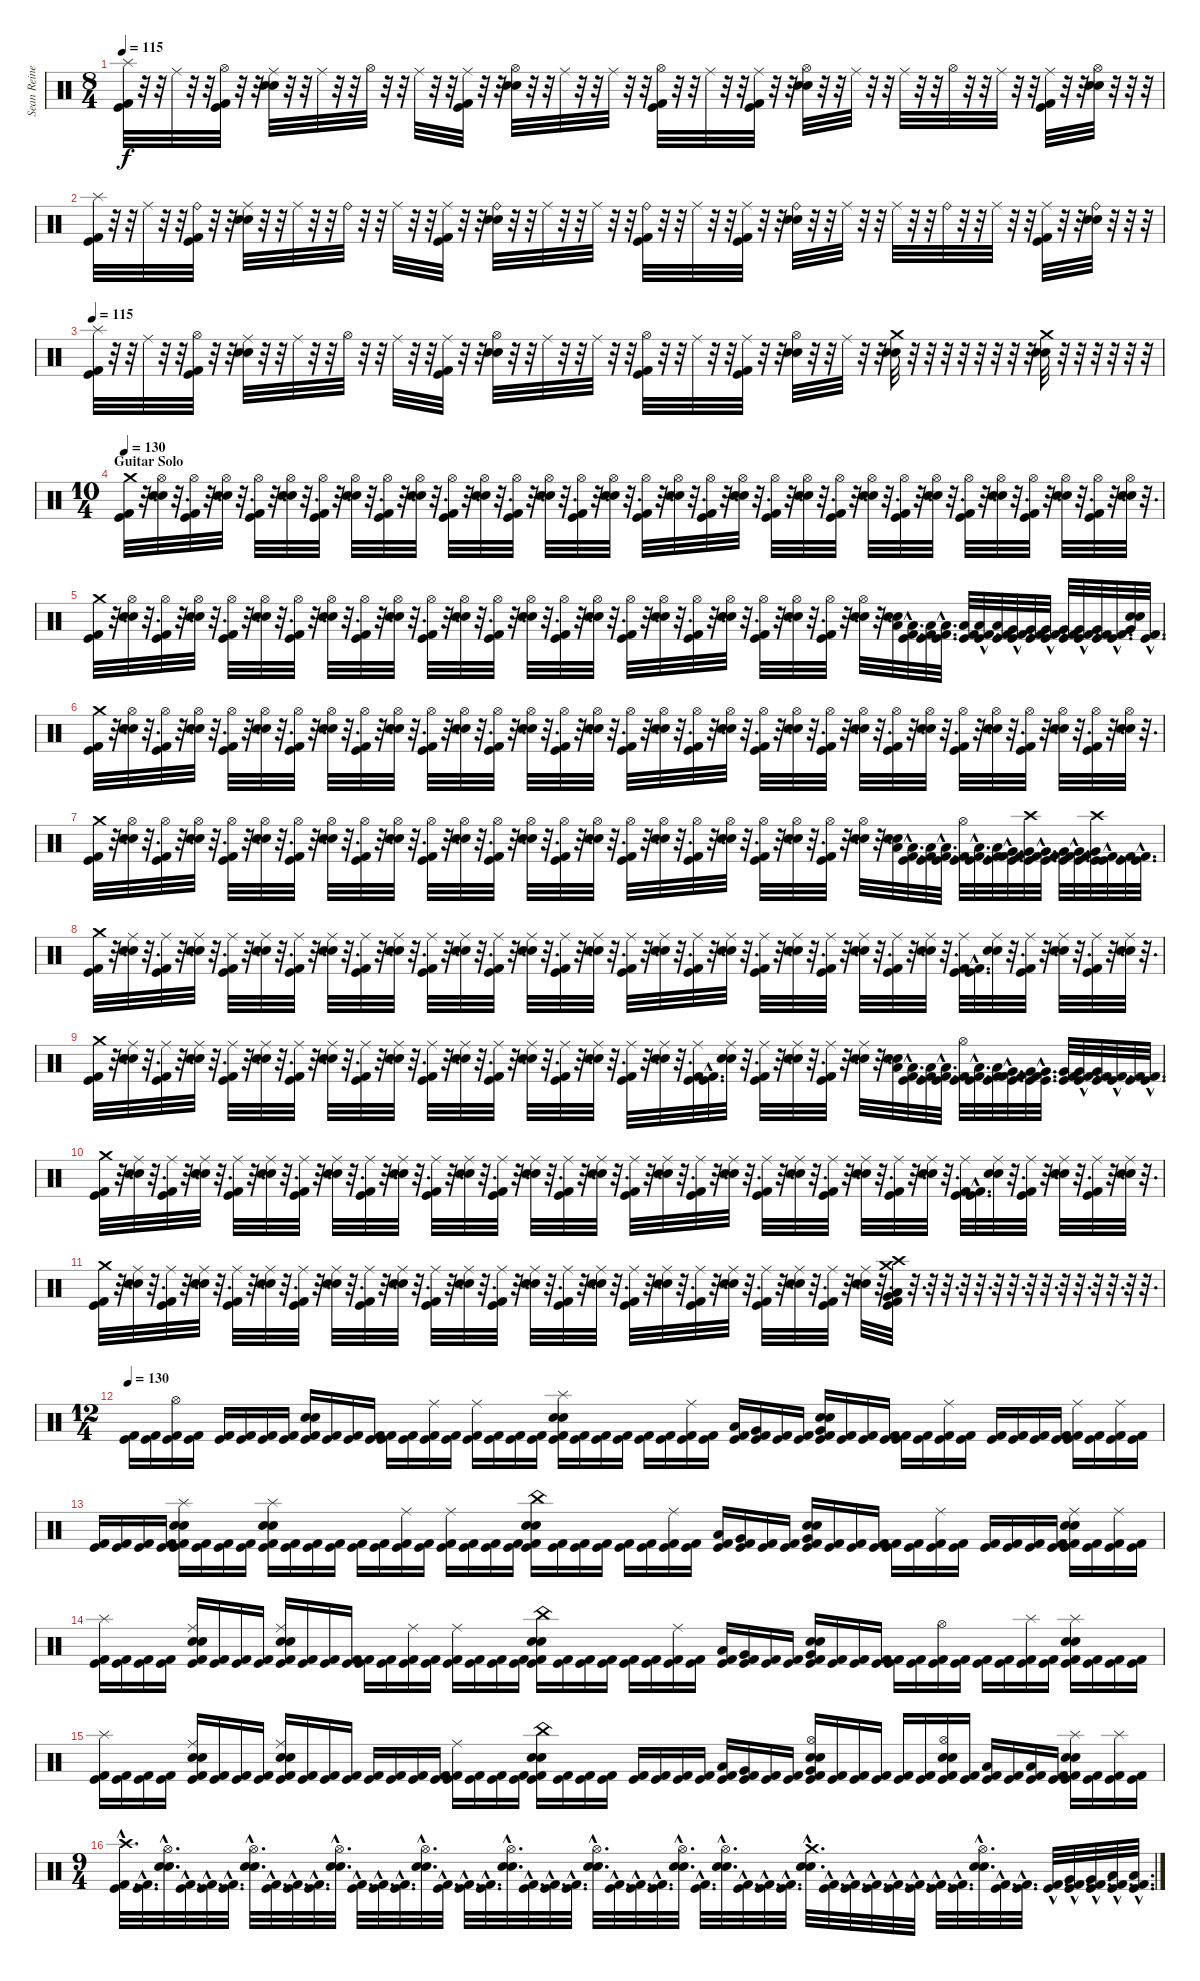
\track ("Sean Reinert" "Sean Reine") {instrument percussion}
\staff {score}
\articulation defaults
\ts (8 4)
\tempo 115
\clef neutral
\ks c
("Splash (hit)" "Kick (hit) 2" "Kick (hit)").32{dy f} r.32 r.32 "Ride (middle)".32 r.32 r.32 ("Hi-Hat (open)" "Kick (hit) 2" "Kick (hit)").32 r.32 r.32 ("Ride (middle)" "Electric Snare (hit)" "Snare (hit) 2").32 r.32 r.32 "Ride (middle)".32 r.32 r.32 "Hi-Hat (open)".32 r.32 r.32 "Ride (middle)".32 r.32 r.32 ("Ride (middle)" "Kick (hit) 2" "Kick (hit)").32 r.32 r.32 ("Hi-Hat (open)" "Electric Snare (hit)" "Snare (hit) 2").32 r.32 r.32 "Ride (middle)".32 r.32 r.32 "Ride (middle)".32 r.32 r.32 ("Hi-Hat (open)" "Kick (hit) 2" "Kick (hit)").32 r.32 r.32 "Ride (middle)".32 r.32 r.32 ("Ride (middle)" "Kick (hit) 2" "Kick (hit)").32 r.32 r.32 ("Hi-Hat (open)" "Electric Snare (hit)" "Snare (hit) 2").32 r.32 r.32 "Ride (middle)".32 r.32 r.32 "Ride (middle)".32 r.32 r.32 "Hi-Hat (open)".32 r.32 r.32 "Ride (middle)".32 r.32 r.32 ("Ride (middle)" "Kick (hit) 2" "Kick (hit)").32 r.32 r.32 ("Hi-Hat (open)" "Electric Snare (hit)" "Snare (hit) 2").32 r.32 r.32 r.32 |
("Splash (hit)" "Kick (hit) 2" "Kick (hit)").32 r.32 r.32 "Ride (middle)".32 r.32 r.32 ("Ride (bell)" "Kick (hit) 2" "Kick (hit)").32 r.32 r.32 ("Ride (middle)" "Electric Snare (hit)" "Snare (hit) 2").32 r.32 r.32 "Ride (middle)".32 r.32 r.32 "Ride (bell)".32 r.32 r.32 "Ride (middle)".32 r.32 r.32 ("Ride (middle)" "Kick (hit) 2" "Kick (hit)").32 r.32 r.32 ("Ride (bell)" "Electric Snare (hit)" "Snare (hit) 2").32 r.32 r.32 "Ride (middle)".32 r.32 r.32 "Ride (middle)".32 r.32 r.32 ("Ride (bell)" "Kick (hit) 2" "Kick (hit)").32 r.32 r.32 "Ride (middle)".32 r.32 r.32 ("Ride (middle)" "Kick (hit) 2" "Kick (hit)").32 r.32 r.32 ("Ride (bell)" "Electric Snare (hit)" "Snare (hit) 2").32 r.32 r.32 "Ride (middle)".32 r.32 r.32 "Ride (middle)".32 r.32 r.32 "Ride (bell)".32 r.32 r.32 "Ride (middle)".32 r.32 r.32 ("Ride (middle)" "Kick (hit) 2" "Kick (hit)").32 r.32 r.32 ("Ride (bell)" "Electric Snare (hit)" "Snare (hit) 2").32 r.32 r.32 r.32 |
\tempo 115
("Splash (hit)" "Kick (hit) 2" "Kick (hit)").32 r.32 r.32 "Ride (middle)".32 r.32 r.32 ("Hi-Hat (open)" "Kick (hit) 2" "Kick (hit)").32 r.32 r.32 ("Ride (middle)" "Electric Snare (hit)" "Snare (hit) 2").32 r.32 r.32 "Ride (middle)".32 r.32 r.32 "Hi-Hat (open)".32 r.32 r.32 "Ride (middle)".32 r.32 r.32 ("Ride (middle)" "Kick (hit) 2" "Kick (hit)").32 r.32 r.32 ("Hi-Hat (open)" "Electric Snare (hit)" "Snare (hit) 2").32 r.32 r.32 "Ride (middle)".32 r.32 r.32 "Ride (middle)".32 r.32 r.32 ("Hi-Hat (open)" "Kick (hit) 2" "Kick (hit)").32 r.32 r.32 "Ride (middle)".32 r.32 r.32 ("Ride (middle)" "Kick (hit) 2" "Kick (hit)").32 r.32 r.32 ("Hi-Hat (open)" "Electric Snare (hit)" "Snare (hit) 2").32 r.32 r.32 "Ride (middle)".32 r.32 r.32 ("Crash medium (hit)" "Electric Snare (hit)" "Snare (hit) 2").32 r.32 r.32 r.32 r.32 r.32 r.32 r.32 r.32 ("Crash medium (hit)" "Electric Snare (hit)" "Snare (hit) 2").32 r.32 r.32 r.32 r.32 r.32 r.32 |
\ts (10 4)
\section ("" "Guitar Solo")
\tempo 130
("Crash medium (hit)" "Kick (hit) 2" "Kick (hit)").32 r.32{d} ("Hi-Hat (open)" "Electric Snare (hit)" "Snare (hit) 2").32 r.32{d} ("Hi-Hat (open)" "Kick (hit)" "Kick (hit) 2").32 r.32{d} ("Hi-Hat (open)" "Electric Snare (hit)" "Snare (hit) 2").32 r.32{d} ("Hi-Hat (open)" "Kick (hit)" "Kick (hit) 2").32 r.32{d} ("Hi-Hat (open)" "Electric Snare (hit)" "Snare (hit) 2").32 r.32{d} ("Hi-Hat (open)" "Kick (hit)" "Kick (hit) 2").32 r.32{d} ("Hi-Hat (open)" "Electric Snare (hit)" "Snare (hit) 2").32 r.32{d} ("Hi-Hat (open)" "Kick (hit)" "Kick (hit) 2").32 r.32{d} ("Hi-Hat (open)" "Snare (hit) 2" "Electric Snare (hit)").32 r.32{d} ("Hi-Hat (open)" "Kick (hit)" "Kick (hit) 2").32 r.32{d} ("Hi-Hat (open)" "Snare (hit) 2" "Electric Snare (hit)").32 r.32{d} ("Hi-Hat (open)" "Kick (hit)" "Kick (hit) 2").32 r.32{d} ("Hi-Hat (open)" "Snare (hit) 2" "Electric Snare (hit)").32 r.32{d} ("Hi-Hat (open)" "Kick (hit)" "Kick (hit) 2").32 r.32{d} ("Hi-Hat (open)" "Snare (hit) 2" "Electric Snare (hit)").32 r.32{d} ("Hi-Hat (open)" "Kick (hit)" "Kick (hit) 2").32 r.32{d} ("Hi-Hat (open)" "Snare (hit) 2" "Electric Snare (hit)").32 r.32{d} ("Hi-Hat (open)" "Kick (hit)" "Kick (hit) 2").32 r.32{d} ("Hi-Hat (open)" "Electric Snare (hit)" "Snare (hit) 2").32 r.32{d} ("Hi-Hat (open)" "Kick (hit) 2" "Kick (hit)").32 r.32{d} ("Hi-Hat (open)" "Electric Snare (hit)" "Snare (hit) 2").32 r.32{d} ("Hi-Hat (open)" "Kick (hit) 2" "Kick (hit)").32 r.32{d} ("Hi-Hat (open)" "Snare (hit) 2" "Electric Snare (hit)").32 r.32{d} ("Hi-Hat (open)" "Kick (hit)" "Kick (hit) 2").32 r.32{d} ("Hi-Hat (open)" "Snare (hit) 2" "Electric Snare (hit)").32 r.32{d} ("Hi-Hat (open)" "Kick (hit)" "Kick (hit) 2").32 r.32{d} ("Hi-Hat (open)" "Electric Snare (hit)" "Snare (hit) 2").32 r.32{d} ("Hi-Hat (open)" "Kick (hit)" "Kick (hit) 2").32 r.32{d} ("Hi-Hat (open)" "Electric Snare (hit)" "Snare (hit) 2").32 r.32{d} ("Hi-Hat (open)" "Kick (hit) 2" "Kick (hit)").32 r.32{d} ("Hi-Hat (open)" "Electric Snare (hit)" "Snare (hit) 2").32 r.32{d} |
("Crash medium (hit)" "Kick (hit) 2" "Kick (hit)").32 r.32{d} ("Hi-Hat (open)" "Electric Snare (hit)" "Snare (hit) 2").32 r.32{d} ("Hi-Hat (open)" "Kick (hit)" "Kick (hit) 2").32 r.32{d} ("Hi-Hat (open)" "Electric Snare (hit)" "Snare (hit) 2").32 r.32{d} ("Hi-Hat (open)" "Kick (hit)" "Kick (hit) 2").32 r.32{d} ("Hi-Hat (open)" "Electric Snare (hit)" "Snare (hit) 2").32 r.32{d} ("Hi-Hat (open)" "Kick (hit)" "Kick (hit) 2").32 r.32{d} ("Hi-Hat (open)" "Electric Snare (hit)" "Snare (hit) 2").32 r.32{d} ("Hi-Hat (open)" "Kick (hit)" "Kick (hit) 2").32 r.32{d} ("Hi-Hat (open)" "Snare (hit) 2" "Electric Snare (hit)").32 r.32{d} ("Hi-Hat (open)" "Kick (hit)" "Kick (hit) 2").32 r.32{d} ("Hi-Hat (open)" "Snare (hit) 2" "Electric Snare (hit)").32 r.32{d} ("Hi-Hat (open)" "Kick (hit)" "Kick (hit) 2").32 r.32{d} ("Hi-Hat (open)" "Snare (hit) 2" "Electric Snare (hit)").32 r.32{d} ("Hi-Hat (open)" "Kick (hit)" "Kick (hit) 2").32 r.32{d} ("Hi-Hat (open)" "Snare (hit) 2" "Electric Snare (hit)").32 r.32{d} ("Hi-Hat (open)" "Kick (hit)" "Kick (hit) 2").32 r.32{d} ("Hi-Hat (open)" "Snare (hit) 2" "Electric Snare (hit)").32 r.32{d} ("Hi-Hat (open)" "Kick (hit)" "Kick (hit) 2").32 r.32{d} ("Hi-Hat (open)" "Electric Snare (hit)" "Snare (hit) 2").32 r.32{d} ("Hi-Hat (open)" "Kick (hit) 2" "Kick (hit)").32 r.32{d} ("Hi-Hat (open)" "Electric Snare (hit)" "Snare (hit) 2").32 r.32{d} ("Hi-Hat (open)" "Kick (hit) 2" "Kick (hit)").32 r.32{d} ("Hi-Hat (open)" "Snare (hit) 2" "Electric Snare (hit)").32 r.32{d} ("Low Tom (hit)" "Electric Snare (hit)" "Snare (hit) 2").32 ("Low Tom (hit)"{hac} "Kick (hit) 2"{hac} "Kick (hit)"{hac}).32{d} ("Low Tom (hit)" "Kick (hit) 2" "Kick (hit)").32 ("Low Tom (hit)"{hac} "Kick (hit)"{hac} "Kick (hit) 2"{hac}).32{d} ("Low Tom (hit)" "Kick (hit)" "Kick (hit) 2").32 ("Low Tom (hit)"{hac} "Kick (hit)"{hac} "Kick (hit) 2"{hac}).32{d} ("Low Tom (hit)" "Kick (hit)" "Kick (hit) 2").32 ("Very Low Tom (hit)"{hac} "Kick (hit)"{hac} "Kick (hit) 2"{hac}).32{d} ("Very Low Tom (hit)" "Kick (hit)" "Kick (hit) 2").32 ("Very Low Tom (hit)"{hac} "Kick (hit)"{hac} "Kick (hit) 2"{hac}).32{d} ("Very Low Tom (hit)" "Kick (hit)" "Kick (hit) 2").32 ("Very Low Tom (hit)"{hac} "Kick (hit)"{hac} "Kick (hit) 2"{hac}).32{d} ("Very Low Tom (hit)" "Kick (hit)" "Kick (hit) 2").32 ("Kick (hit)"{hac} "Kick (hit) 2"{hac}).32{d} ("Very Low Tom (hit)" "Snare (hit) 2" "Electric Snare (hit)").32 ("Kick (hit)"{hac} "Kick (hit) 2"{hac}).32{d} |
("Crash medium (hit)" "Kick (hit) 2" "Kick (hit)").32 r.32{d} ("Hi-Hat (open)" "Electric Snare (hit)" "Snare (hit) 2").32 r.32{d} ("Hi-Hat (open)" "Kick (hit)" "Kick (hit) 2").32 r.32{d} ("Hi-Hat (open)" "Electric Snare (hit)" "Snare (hit) 2").32 r.32{d} ("Hi-Hat (open)" "Kick (hit)" "Kick (hit) 2").32 r.32{d} ("Hi-Hat (open)" "Electric Snare (hit)" "Snare (hit) 2").32 r.32{d} ("Hi-Hat (open)" "Kick (hit)" "Kick (hit) 2").32 r.32{d} ("Hi-Hat (open)" "Electric Snare (hit)" "Snare (hit) 2").32 r.32{d} ("Hi-Hat (open)" "Kick (hit)" "Kick (hit) 2").32 r.32{d} ("Hi-Hat (open)" "Snare (hit) 2" "Electric Snare (hit)").32 r.32{d} ("Hi-Hat (open)" "Kick (hit)" "Kick (hit) 2").32 r.32{d} ("Hi-Hat (open)" "Snare (hit) 2" "Electric Snare (hit)").32 r.32{d} ("Hi-Hat (open)" "Kick (hit)" "Kick (hit) 2").32 r.32{d} ("Hi-Hat (open)" "Snare (hit) 2" "Electric Snare (hit)").32 r.32{d} ("Hi-Hat (open)" "Kick (hit)" "Kick (hit) 2").32 r.32{d} ("Hi-Hat (open)" "Snare (hit) 2" "Electric Snare (hit)").32 r.32{d} ("Hi-Hat (open)" "Kick (hit)" "Kick (hit) 2").32 r.32{d} ("Hi-Hat (open)" "Snare (hit) 2" "Electric Snare (hit)").32 r.32{d} ("Hi-Hat (open)" "Kick (hit)" "Kick (hit) 2").32 r.32{d} ("Hi-Hat (open)" "Electric Snare (hit)" "Snare (hit) 2").32 r.32{d} ("Hi-Hat (open)" "Kick (hit) 2" "Kick (hit)").32 r.32{d} ("Hi-Hat (open)" "Electric Snare (hit)" "Snare (hit) 2").32 r.32{d} ("Hi-Hat (open)" "Kick (hit) 2" "Kick (hit)").32 r.32{d} ("Hi-Hat (open)" "Snare (hit) 2" "Electric Snare (hit)").32 r.32{d} ("Hi-Hat (open)" "Kick (hit)" "Kick (hit) 2").32 r.32{d} ("Hi-Hat (open)" "Snare (hit) 2" "Electric Snare (hit)").32 r.32{d} ("Hi-Hat (open)" "Kick (hit)" "Kick (hit) 2").32 r.32{d} ("Hi-Hat (open)" "Electric Snare (hit)" "Snare (hit) 2").32 r.32{d} ("Hi-Hat (open)" "Kick (hit)" "Kick (hit) 2").32 r.32{d} ("Hi-Hat (open)" "Electric Snare (hit)" "Snare (hit) 2").32 r.32{d} ("Hi-Hat (open)" "Kick (hit) 2" "Kick (hit)").32 r.32{d} ("Hi-Hat (open)" "Electric Snare (hit)" "Snare (hit) 2").32 r.32{d} |
("Crash medium (hit)" "Kick (hit) 2" "Kick (hit)").32 r.32{d} ("Hi-Hat (open)" "Electric Snare (hit)" "Snare (hit) 2").32 r.32{d} ("Hi-Hat (open)" "Kick (hit)" "Kick (hit) 2").32 r.32{d} ("Hi-Hat (open)" "Electric Snare (hit)" "Snare (hit) 2").32 r.32{d} ("Hi-Hat (open)" "Kick (hit)" "Kick (hit) 2").32 r.32{d} ("Hi-Hat (open)" "Electric Snare (hit)" "Snare (hit) 2").32 r.32{d} ("Hi-Hat (open)" "Kick (hit)" "Kick (hit) 2").32 r.32{d} ("Hi-Hat (open)" "Electric Snare (hit)" "Snare (hit) 2").32 r.32{d} ("Hi-Hat (open)" "Kick (hit)" "Kick (hit) 2").32 r.32{d} ("Hi-Hat (open)" "Snare (hit) 2" "Electric Snare (hit)").32 r.32{d} ("Hi-Hat (open)" "Kick (hit)" "Kick (hit) 2").32 r.32{d} ("Hi-Hat (open)" "Snare (hit) 2" "Electric Snare (hit)").32 r.32{d} ("Hi-Hat (open)" "Kick (hit)" "Kick (hit) 2").32 r.32{d} ("Hi-Hat (open)" "Snare (hit) 2" "Electric Snare (hit)").32 r.32{d} ("Hi-Hat (open)" "Kick (hit)" "Kick (hit) 2").32 r.32{d} ("Hi-Hat (open)" "Snare (hit) 2" "Electric Snare (hit)").32 r.32{d} ("Hi-Hat (open)" "Kick (hit)" "Kick (hit) 2").32 r.32{d} ("Hi-Hat (open)" "Snare (hit) 2" "Electric Snare (hit)").32 r.32{d} ("Hi-Hat (open)" "Kick (hit)" "Kick (hit) 2").32 r.32{d} ("Hi-Hat (open)" "Electric Snare (hit)" "Snare (hit) 2").32 r.32{d} ("Hi-Hat (open)" "Kick (hit) 2" "Kick (hit)").32 r.32{d} ("Hi-Hat (open)" "Electric Snare (hit)" "Snare (hit) 2").32 r.32{d} ("Hi-Hat (open)" "Kick (hit) 2" "Kick (hit)").32 r.32{d} ("Hi-Hat (open)" "Snare (hit) 2" "Electric Snare (hit)").32 r.32{d} ("Low Tom (hit)" "Electric Snare (hit)" "Snare (hit) 2").32 ("Low Tom (hit)"{hac} "Kick (hit) 2"{hac} "Kick (hit)"{hac}).32{d} ("Low Tom (hit)" "Kick (hit) 2" "Kick (hit)").32 ("Low Tom (hit)"{hac} "Kick (hit)"{hac} "Kick (hit) 2"{hac}).32{d} ("Hi-Hat (open)" "Kick (hit)" "Kick (hit) 2").32 ("Low Tom (hit)"{hac} "Kick (hit)"{hac} "Kick (hit) 2"{hac}).32{d} ("Low Tom (hit)" "Kick (hit)" "Kick (hit) 2").32 ("Very Low Tom (hit)"{hac} "Kick (hit)"{hac} "Kick (hit) 2"{hac}).32{d} ("Crash high (hit)" "Very Low Tom (hit)" "Kick (hit)" "Kick (hit) 2").32 ("Very Low Tom (hit)"{hac} "Kick (hit)"{hac} "Kick (hit) 2"{hac}).32{d} ("Very Low Tom (hit)" "Kick (hit)" "Kick (hit) 2").32 ("Very Low Tom (hit)"{hac} "Kick (hit)"{hac} "Kick (hit) 2"{hac}).32{d} ("Crash high (hit)" "Very Low Tom (hit)" "Kick (hit)" "Kick (hit) 2").32 ("Kick (hit)"{hac} "Kick (hit) 2"{hac}).32{d} ("Kick (hit)" "Kick (hit) 2").32 ("Kick (hit)"{hac} "Kick (hit) 2"{hac}).32{d} |
("Crash medium (hit)" "Kick (hit) 2" "Kick (hit)").32 r.32{d} ("Ride (middle)" "Electric Snare (hit)" "Snare (hit) 2").32 r.32{d} ("Ride (middle)" "Kick (hit)" "Kick (hit) 2").32 r.32{d} ("Ride (middle)" "Electric Snare (hit)" "Snare (hit) 2").32 r.32{d} ("Ride (middle)" "Kick (hit)" "Kick (hit) 2").32 r.32{d} ("Ride (middle)" "Electric Snare (hit)" "Snare (hit) 2").32 r.32{d} ("Ride (middle)" "Kick (hit)" "Kick (hit) 2").32 r.32{d} ("Ride (middle)" "Electric Snare (hit)" "Snare (hit) 2").32 r.32{d} ("Ride (middle)" "Kick (hit)" "Kick (hit) 2").32 r.32{d} ("Ride (middle)" "Snare (hit) 2" "Electric Snare (hit)").32 r.32{d} ("Ride (middle)" "Kick (hit)" "Kick (hit) 2").32 r.32{d} ("Ride (middle)" "Snare (hit) 2" "Electric Snare (hit)").32 r.32{d} ("Ride (middle)" "Kick (hit)" "Kick (hit) 2").32 r.32{d} ("Ride (middle)" "Snare (hit) 2" "Electric Snare (hit)").32 r.32{d} ("Ride (middle)" "Kick (hit)" "Kick (hit) 2").32 r.32{d} ("Ride (middle)" "Snare (hit) 2" "Electric Snare (hit)").32 r.32{d} ("Ride (middle)" "Kick (hit)" "Kick (hit) 2").32 r.32{d} ("Ride (middle)" "Snare (hit) 2" "Electric Snare (hit)").32 r.32{d} ("Ride (middle)" "Kick (hit)" "Kick (hit) 2").32 r.32{d} ("Ride (middle)" "Electric Snare (hit)" "Snare (hit) 2").32 r.32{d} ("Ride (middle)" "Kick (hit) 2" "Kick (hit)").32 r.32{d} ("Ride (middle)" "Electric Snare (hit)" "Snare (hit) 2").32 r.32{d} ("Ride (middle)" "Kick (hit) 2" "Kick (hit)").32 r.32{d} ("Ride (middle)" "Snare (hit) 2" "Electric Snare (hit)").32 r.32{d} ("Ride (middle)" "Kick (hit)" "Kick (hit) 2").32 r.32{d} ("Ride (middle)" "Snare (hit) 2" "Electric Snare (hit)").32 r.32{d} ("Ride (middle)" "Kick (hit)" "Kick (hit) 2").32 ("Kick (hit)"{hac} "Kick (hit) 2"{hac}).32{d} ("Ride (middle)" "Electric Snare (hit)" "Snare (hit) 2").32 r.32{d} ("Ride (middle)" "Kick (hit)" "Kick (hit) 2").32 r.32{d} ("Ride (middle)" "Electric Snare (hit)" "Snare (hit) 2").32 r.32{d} ("Ride (middle)" "Kick (hit) 2" "Kick (hit)").32 r.32{d} ("Ride (middle)" "Electric Snare (hit)" "Snare (hit) 2").32 r.32{d} |
("Crash medium (hit)" "Kick (hit) 2" "Kick (hit)").32 r.32{d} ("Ride (middle)" "Electric Snare (hit)" "Snare (hit) 2").32 r.32{d} ("Ride (middle)" "Kick (hit)" "Kick (hit) 2").32 r.32{d} ("Ride (middle)" "Electric Snare (hit)" "Snare (hit) 2").32 r.32{d} ("Ride (middle)" "Kick (hit)" "Kick (hit) 2").32 r.32{d} ("Ride (middle)" "Electric Snare (hit)" "Snare (hit) 2").32 r.32{d} ("Ride (middle)" "Kick (hit)" "Kick (hit) 2").32 r.32{d} ("Ride (middle)" "Electric Snare (hit)" "Snare (hit) 2").32 r.32{d} ("Ride (middle)" "Kick (hit)" "Kick (hit) 2").32 r.32{d} ("Ride (middle)" "Snare (hit) 2" "Electric Snare (hit)").32 r.32{d} ("Ride (middle)" "Kick (hit)" "Kick (hit) 2").32 r.32{d} ("Ride (middle)" "Snare (hit) 2" "Electric Snare (hit)").32 r.32{d} ("Ride (middle)" "Kick (hit)" "Kick (hit) 2").32 r.32{d} ("Ride (middle)" "Snare (hit) 2" "Electric Snare (hit)").32 r.32{d} ("Ride (middle)" "Kick (hit)" "Kick (hit) 2").32 r.32{d} ("Ride (middle)" "Snare (hit) 2" "Electric Snare (hit)").32 r.32{d} ("Ride (middle)" "Kick (hit)" "Kick (hit) 2").32 r.32{d} ("Ride (middle)" "Snare (hit) 2" "Electric Snare (hit)").32 r.32{d} ("Ride (middle)" "Kick (hit)" "Kick (hit) 2").32 ("Kick (hit)"{hac} "Kick (hit) 2"{hac}).32{d} ("Ride (middle)" "Electric Snare (hit)" "Snare (hit) 2").32 r.32{d} ("Ride (middle)" "Kick (hit) 2" "Kick (hit)").32 r.32{d} ("Ride (middle)" "Electric Snare (hit)" "Snare (hit) 2").32 r.32{d} ("Ride (middle)" "Kick (hit) 2" "Kick (hit)").32 r.32{d} ("Ride (middle)" "Snare (hit) 2" "Electric Snare (hit)").32 r.32{d} ("Low Tom (hit)" "Electric Snare (hit)" "Snare (hit) 2").32 ("Low Tom (hit)"{hac} "Kick (hit) 2"{hac} "Kick (hit)"{hac}).32{d} ("Low Tom (hit)" "Kick (hit) 2" "Kick (hit)").32 ("Low Tom (hit)"{hac} "Kick (hit)"{hac} "Kick (hit) 2"{hac}).32{d} ("Hi-Hat (open)" "Kick (hit)" "Kick (hit) 2").32 ("Low Tom (hit)"{hac} "Kick (hit)"{hac} "Kick (hit) 2"{hac}).32{d} ("Low Tom (hit)" "Kick (hit)" "Kick (hit) 2").32 ("Very Low Tom (hit)"{hac} "Kick (hit)"{hac} "Kick (hit) 2"{hac}).32{d} ("Very Low Tom (hit)" "Kick (hit)" "Kick (hit) 2").32 ("Very Low Tom (hit)"{hac} "Kick (hit)"{hac} "Kick (hit) 2"{hac}).32{d} ("Very Low Tom (hit)" "Kick (hit)" "Kick (hit) 2").32 ("Very Low Tom (hit)"{hac} "Kick (hit)"{hac} "Kick (hit) 2"{hac}).32{d} ("Very Low Tom (hit)" "Kick (hit)" "Kick (hit) 2").32 ("Kick (hit)"{hac} "Kick (hit) 2"{hac}).32{d} ("Kick (hit)" "Kick (hit) 2").32 ("Kick (hit)"{hac} "Kick (hit) 2"{hac}).32{d} |
("Crash medium (hit)" "Kick (hit) 2" "Kick (hit)").32 r.32{d} ("Ride (middle)" "Electric Snare (hit)" "Snare (hit) 2").32 r.32{d} ("Ride (middle)" "Kick (hit)" "Kick (hit) 2").32 r.32{d} ("Ride (middle)" "Electric Snare (hit)" "Snare (hit) 2").32 r.32{d} ("Ride (middle)" "Kick (hit)" "Kick (hit) 2").32 r.32{d} ("Ride (middle)" "Electric Snare (hit)" "Snare (hit) 2").32 r.32{d} ("Ride (middle)" "Kick (hit)" "Kick (hit) 2").32 r.32{d} ("Ride (middle)" "Electric Snare (hit)" "Snare (hit) 2").32 r.32{d} ("Ride (middle)" "Kick (hit)" "Kick (hit) 2").32 r.32{d} ("Ride (middle)" "Snare (hit) 2" "Electric Snare (hit)").32 r.32{d} ("Ride (middle)" "Kick (hit)" "Kick (hit) 2").32 r.32{d} ("Ride (middle)" "Snare (hit) 2" "Electric Snare (hit)").32 r.32{d} ("Ride (middle)" "Kick (hit)" "Kick (hit) 2").32 r.32{d} ("Ride (middle)" "Snare (hit) 2" "Electric Snare (hit)").32 r.32{d} ("Ride (middle)" "Kick (hit)" "Kick (hit) 2").32 r.32{d} ("Ride (middle)" "Snare (hit) 2" "Electric Snare (hit)").32 r.32{d} ("Ride (middle)" "Kick (hit)" "Kick (hit) 2").32 r.32{d} ("Ride (middle)" "Snare (hit) 2" "Electric Snare (hit)").32 r.32{d} ("Ride (middle)" "Kick (hit)" "Kick (hit) 2").32 r.32{d} ("Ride (middle)" "Electric Snare (hit)" "Snare (hit) 2").32 r.32{d} ("Ride (middle)" "Kick (hit) 2" "Kick (hit)").32 r.32{d} ("Ride (middle)" "Electric Snare (hit)" "Snare (hit) 2").32 r.32{d} ("Ride (middle)" "Kick (hit) 2" "Kick (hit)").32 r.32{d} ("Ride (middle)" "Snare (hit) 2" "Electric Snare (hit)").32 r.32{d} ("Ride (middle)" "Kick (hit)" "Kick (hit) 2").32 r.32{d} ("Ride (middle)" "Snare (hit) 2" "Electric Snare (hit)").32 r.32{d} ("Ride (middle)" "Kick (hit)" "Kick (hit) 2").32 ("Kick (hit)"{hac} "Kick (hit) 2"{hac}).32{d} ("Ride (middle)" "Electric Snare (hit)" "Snare (hit) 2").32 r.32{d} ("Ride (middle)" "Kick (hit)" "Kick (hit) 2").32 r.32{d} ("Ride (middle)" "Electric Snare (hit)" "Snare (hit) 2").32 r.32{d} ("Ride (middle)" "Kick (hit) 2" "Kick (hit)").32 r.32{d} ("Ride (middle)" "Electric Snare (hit)" "Snare (hit) 2").32 r.32{d} |
("Crash medium (hit)" "Kick (hit) 2" "Kick (hit)").32 r.32{d} ("Ride (middle)" "Electric Snare (hit)" "Snare (hit) 2").32 r.32{d} ("Ride (middle)" "Kick (hit)" "Kick (hit) 2").32 r.32{d} ("Ride (middle)" "Electric Snare (hit)" "Snare (hit) 2").32 r.32{d} ("Ride (middle)" "Kick (hit)" "Kick (hit) 2").32 r.32{d} ("Ride (middle)" "Electric Snare (hit)" "Snare (hit) 2").32 r.32{d} ("Ride (middle)" "Kick (hit)" "Kick (hit) 2").32 r.32{d} ("Ride (middle)" "Electric Snare (hit)" "Snare (hit) 2").32 r.32{d} ("Ride (middle)" "Kick (hit)" "Kick (hit) 2").32 r.32{d} ("Ride (middle)" "Snare (hit) 2" "Electric Snare (hit)").32 r.32{d} ("Ride (middle)" "Kick (hit)" "Kick (hit) 2").32 r.32{d} ("Ride (middle)" "Snare (hit) 2" "Electric Snare (hit)").32 r.32{d} ("Ride (middle)" "Kick (hit)" "Kick (hit) 2").32 r.32{d} ("Ride (middle)" "Snare (hit) 2" "Electric Snare (hit)").32 r.32{d} ("Ride (middle)" "Kick (hit)" "Kick (hit) 2").32 r.32{d} ("Ride (middle)" "Snare (hit) 2" "Electric Snare (hit)").32 r.32{d} ("Ride (middle)" "Kick (hit)" "Kick (hit) 2").32 r.32{d} ("Ride (middle)" "Snare (hit) 2" "Electric Snare (hit)").32 r.32{d} ("Ride (middle)" "Kick (hit)" "Kick (hit) 2").32 r.32{d} ("Ride (middle)" "Electric Snare (hit)" "Snare (hit) 2").32 r.32{d} ("Ride (middle)" "Kick (hit) 2" "Kick (hit)").32 r.32{d} ("Ride (middle)" "Electric Snare (hit)" "Snare (hit) 2").32 r.32{d} ("Ride (middle)" "Kick (hit) 2" "Kick (hit)").32 r.32{d} ("Ride (middle)" "Snare (hit) 2" "Electric Snare (hit)").32 r.32{d} ("Crash high (hit)" "Crash medium (hit)" "Low Floor Tom (hit)" "Very Low Tom (hit)" "Kick (hit)" "Kick (hit) 2").32 r.32{d} r.32 r.32{d} r.32 r.32{d} r.32 r.32{d} r.32 r.32{d} r.32 r.32{d} r.32 r.32{d} r.32 r.32{d} |
\ts (12 4)
\tempo 130
("Kick (hit) 2" "Kick (hit)").16 ("Kick (hit) 2" "Kick (hit)").16 ("Hi-Hat (open)" "Kick (hit) 2" "Kick (hit)").16 ("Kick (hit) 2" "Kick (hit)").16 ("Kick (hit) 2" "Kick (hit)").16 ("Kick (hit) 2" "Kick (hit)").16 ("Kick (hit) 2" "Kick (hit)").16 ("Kick (hit) 2" "Kick (hit)").16 ("Snare (hit) 2" "Electric Snare (hit)" "Kick (hit) 2" "Kick (hit)").16 ("Kick (hit) 2" "Kick (hit)").16 ("Kick (hit) 2" "Kick (hit)").16 ("Kick (hit) 2" "Kick (hit)").16 ("Kick (hit) 2" "Kick (hit)").16 ("Kick (hit) 2" "Kick (hit)").16 ("Ride (middle)" "Kick (hit) 2" "Kick (hit)").16 ("Kick (hit) 2" "Kick (hit)").16 ("Ride (middle)" "Kick (hit) 2" "Kick (hit)").16 ("Kick (hit) 2" "Kick (hit)").16 ("Kick (hit) 2" "Kick (hit)").16 ("Kick (hit) 2" "Kick (hit)").16 ("Splash (hit)" "Snare (hit) 2" "Electric Snare (hit)" "Kick (hit) 2" "Kick (hit)").16 ("Kick (hit) 2" "Kick (hit)").16 ("Kick (hit) 2" "Kick (hit)").16 ("Kick (hit) 2" "Kick (hit)").16 ("Kick (hit) 2" "Kick (hit)").16 ("Kick (hit) 2" "Kick (hit)").16 ("Ride (middle)" "Kick (hit) 2" "Kick (hit)").16 ("Kick (hit) 2" "Kick (hit)").16 ("Low Tom (hit)" "Kick (hit) 2" "Kick (hit)").16 ("Very Low Tom (hit)" "Kick (hit) 2" "Kick (hit)").16 ("Kick (hit) 2" "Kick (hit)").16 ("Kick (hit) 2" "Kick (hit)").16 ("Very Low Tom (hit)" "Snare (hit) 2" "Electric Snare (hit)" "Kick (hit) 2" "Kick (hit)").16 ("Kick (hit) 2" "Kick (hit)").16 ("Kick (hit) 2" "Kick (hit)").16 ("Kick (hit) 2" "Kick (hit)").16 ("Kick (hit) 2" "Kick (hit)").16 ("Kick (hit) 2" "Kick (hit)").16 ("Ride (middle)" "Kick (hit) 2" "Kick (hit)").16 ("Kick (hit) 2" "Kick (hit)").16 ("Kick (hit) 2" "Kick (hit)").16 ("Kick (hit) 2" "Kick (hit)").16 ("Kick (hit) 2" "Kick (hit)").16 ("Kick (hit) 2" "Kick (hit)").16 ("Ride (middle)" "Kick (hit) 2" "Kick (hit)").16 ("Kick (hit) 2" "Kick (hit)").16 ("Ride (middle)" "Kick (hit) 2" "Kick (hit)").16 ("Kick (hit) 2" "Kick (hit)").16 |
("Kick (hit) 2" "Kick (hit)").16 ("Kick (hit) 2" "Kick (hit)").16 ("Kick (hit) 2" "Kick (hit)").16 ("Kick (hit) 2" "Kick (hit)").16 ("Splash (hit)" "Snare (hit) 2" "Electric Snare (hit)" "Kick (hit) 2" "Kick (hit)").16 ("Kick (hit) 2" "Kick (hit)").16 ("Kick (hit) 2" "Kick (hit)").16 ("Kick (hit) 2" "Kick (hit)").16 ("Splash (hit)" "Snare (hit) 2" "Electric Snare (hit)" "Kick (hit) 2" "Kick (hit)").16 ("Kick (hit) 2" "Kick (hit)").16 ("Kick (hit) 2" "Kick (hit)").16 ("Kick (hit) 2" "Kick (hit)").16 ("Kick (hit) 2" "Kick (hit)").16 ("Kick (hit) 2" "Kick (hit)").16 ("Ride (middle)" "Kick (hit) 2" "Kick (hit)").16 ("Kick (hit) 2" "Kick (hit)").16 ("Ride (middle)" "Kick (hit) 2" "Kick (hit)").16 ("Kick (hit) 2" "Kick (hit)").16 ("Kick (hit) 2" "Kick (hit)").16 ("Kick (hit) 2" "Kick (hit)").16 ("China (hit)" "Snare (hit) 2" "Electric Snare (hit)" "Kick (hit) 2" "Kick (hit)").16 ("Kick (hit) 2" "Kick (hit)").16 ("Kick (hit) 2" "Kick (hit)").16 ("Kick (hit) 2" "Kick (hit)").16 ("Kick (hit) 2" "Kick (hit)").16 ("Kick (hit) 2" "Kick (hit)").16 ("Ride (middle)" "Kick (hit) 2" "Kick (hit)").16 ("Kick (hit) 2" "Kick (hit)").16 ("Low Tom (hit)" "Kick (hit) 2" "Kick (hit)").16 ("Very Low Tom (hit)" "Kick (hit) 2" "Kick (hit)").16 ("Kick (hit) 2" "Kick (hit)").16 ("Kick (hit) 2" "Kick (hit)").16 ("Very Low Tom (hit)" "Snare (hit) 2" "Electric Snare (hit)" "Kick (hit) 2" "Kick (hit)").16 ("Kick (hit) 2" "Kick (hit)").16 ("Kick (hit) 2" "Kick (hit)").16 ("Kick (hit) 2" "Kick (hit)").16 ("Kick (hit) 2" "Kick (hit)").16 ("Kick (hit) 2" "Kick (hit)").16 ("Ride (middle)" "Kick (hit) 2" "Kick (hit)").16 ("Kick (hit) 2" "Kick (hit)").16 ("Kick (hit) 2" "Kick (hit)").16 ("Kick (hit) 2" "Kick (hit)").16 ("Kick (hit) 2" "Kick (hit)").16 ("Kick (hit) 2" "Kick (hit)").16 ("Ride (middle)" "Electric Snare (hit)" "Snare (hit) 2" "Kick (hit) 2" "Kick (hit)").16 ("Kick (hit) 2" "Kick (hit)").16 ("Ride (middle)" "Kick (hit) 2" "Kick (hit)").16 ("Kick (hit) 2" "Kick (hit)").16 |
("Splash (hit)" "Kick (hit) 2" "Kick (hit)").16 ("Kick (hit) 2" "Kick (hit)").16 ("Kick (hit) 2" "Kick (hit)").16 ("Kick (hit) 2" "Kick (hit)").16 ("Ride (middle)" "Snare (hit) 2" "Electric Snare (hit)" "Kick (hit) 2" "Kick (hit)").16 ("Kick (hit) 2" "Kick (hit)").16 ("Kick (hit) 2" "Kick (hit)").16 ("Kick (hit) 2" "Kick (hit)").16 ("Ride (middle)" "Snare (hit) 2" "Electric Snare (hit)" "Kick (hit) 2" "Kick (hit)").16 ("Kick (hit) 2" "Kick (hit)").16 ("Kick (hit) 2" "Kick (hit)").16 ("Kick (hit) 2" "Kick (hit)").16 ("Kick (hit) 2" "Kick (hit)").16 ("Kick (hit) 2" "Kick (hit)").16 ("Ride (middle)" "Kick (hit) 2" "Kick (hit)").16 ("Kick (hit) 2" "Kick (hit)").16 ("Ride (middle)" "Kick (hit) 2" "Kick (hit)").16 ("Kick (hit) 2" "Kick (hit)").16 ("Kick (hit) 2" "Kick (hit)").16 ("Kick (hit) 2" "Kick (hit)").16 ("China (hit)" "Snare (hit) 2" "Electric Snare (hit)" "Kick (hit) 2" "Kick (hit)").16 ("Kick (hit) 2" "Kick (hit)").16 ("Kick (hit) 2" "Kick (hit)").16 ("Kick (hit) 2" "Kick (hit)").16 ("Kick (hit) 2" "Kick (hit)").16 ("Kick (hit) 2" "Kick (hit)").16 ("Ride (middle)" "Kick (hit) 2" "Kick (hit)").16 ("Kick (hit) 2" "Kick (hit)").16 ("Low Tom (hit)" "Kick (hit) 2" "Kick (hit)").16 ("Very Low Tom (hit)" "Kick (hit) 2" "Kick (hit)").16 ("Kick (hit) 2" "Kick (hit)").16 ("Kick (hit) 2" "Kick (hit)").16 ("Very Low Tom (hit)" "Snare (hit) 2" "Electric Snare (hit)" "Kick (hit) 2" "Kick (hit)").16 ("Kick (hit) 2" "Kick (hit)").16 ("Kick (hit) 2" "Kick (hit)").16 ("Kick (hit) 2" "Kick (hit)").16 ("Kick (hit) 2" "Kick (hit)").16 ("Kick (hit) 2" "Kick (hit)").16 ("Hi-Hat (open)" "Kick (hit) 2" "Kick (hit)").16 ("Kick (hit) 2" "Kick (hit)").16 ("Kick (hit) 2" "Kick (hit)").16 ("Kick (hit) 2" "Kick (hit)").16 ("Splash (hit)" "Kick (hit) 2" "Kick (hit)").16 ("Kick (hit) 2" "Kick (hit)").16 ("Splash (hit)" "Electric Snare (hit)" "Snare (hit) 2" "Kick (hit) 2" "Kick (hit)").16 ("Kick (hit) 2" "Kick (hit)").16 ("Kick (hit) 2" "Kick (hit)").16 ("Kick (hit) 2" "Kick (hit)").16 |
("Splash (hit)" "Kick (hit) 2" "Kick (hit)").16 ("Kick (hit) 2" "Kick (hit)").16 ("Kick (hit) 2" "Kick (hit)").16 ("Kick (hit) 2" "Kick (hit)").16 ("Ride (middle)" "Snare (hit) 2" "Electric Snare (hit)" "Kick (hit) 2" "Kick (hit)").16 ("Kick (hit) 2" "Kick (hit)").16 ("Kick (hit) 2" "Kick (hit)").16 ("Kick (hit) 2" "Kick (hit)").16 ("Ride (middle)" "Snare (hit) 2" "Electric Snare (hit)" "Kick (hit) 2" "Kick (hit)").16 ("Kick (hit) 2" "Kick (hit)").16 ("Kick (hit) 2" "Kick (hit)").16 ("Kick (hit) 2" "Kick (hit)").16 ("Kick (hit) 2" "Kick (hit)").16 ("Kick (hit) 2" "Kick (hit)").16 ("Kick (hit) 2" "Kick (hit)").16 ("Kick (hit) 2" "Kick (hit)").16 ("Ride (middle)" "Kick (hit) 2" "Kick (hit)").16 ("Kick (hit) 2" "Kick (hit)").16 ("Kick (hit) 2" "Kick (hit)").16 ("Kick (hit) 2" "Kick (hit)").16 ("China (hit)" "Snare (hit) 2" "Electric Snare (hit)" "Kick (hit) 2" "Kick (hit)").16 ("Kick (hit) 2" "Kick (hit)").16 ("Kick (hit) 2" "Kick (hit)").16 ("Kick (hit) 2" "Kick (hit)").16 ("Kick (hit) 2" "Kick (hit)").16 ("Kick (hit) 2" "Kick (hit)").16 ("Kick (hit) 2" "Kick (hit)").16 ("Kick (hit) 2" "Kick (hit)").16 ("Low Tom (hit)" "Kick (hit) 2" "Kick (hit)").16 ("Very Low Tom (hit)" "Kick (hit) 2" "Kick (hit)").16 ("Kick (hit) 2" "Kick (hit)").16 ("Kick (hit) 2" "Kick (hit)").16 ("Hi-Hat (open)" "Very Low Tom (hit)" "Snare (hit) 2" "Electric Snare (hit)" "Kick (hit) 2" "Kick (hit)").16 ("Kick (hit) 2" "Kick (hit)").16 ("Kick (hit) 2" "Kick (hit)").16 ("Kick (hit) 2" "Kick (hit)").16 ("Kick (hit) 2" "Kick (hit)").16 ("Kick (hit) 2" "Kick (hit)").16 ("Hi-Hat (open)" "Electric Snare (hit)" "Snare (hit) 2" "Kick (hit) 2" "Kick (hit)").16 ("Kick (hit) 2" "Kick (hit)").16 ("Low Tom (hit)" "Kick (hit) 2" "Kick (hit)").16 ("Kick (hit) 2" "Kick (hit)").16 ("Low Tom (hit)" "Kick (hit) 2" "Kick (hit)").16 ("Kick (hit) 2" "Kick (hit)").16 ("Splash (hit)" "Electric Snare (hit)" "Snare (hit) 2" "Kick (hit) 2" "Kick (hit)").16 ("Kick (hit) 2" "Kick (hit)").16 ("Splash (hit)" "Kick (hit) 2" "Kick (hit)").16 ("Kick (hit) 2" "Kick (hit)").16 |
\ts (9 4)
("Crash high (hit)"{hac} "Kick (hit) 2"{hac} "Kick (hit)"{hac}).32{d} ("Kick (hit) 2"{hac} "Kick (hit)"{hac}).32{d} ("Hi-Hat (open)"{hac} "Electric Snare (hit)"{hac} "Snare (hit) 2"{hac}).32{d} ("Kick (hit) 2"{hac} "Kick (hit)"{hac}).32{d} ("Kick (hit) 2"{hac} "Kick (hit)"{hac}).32{d} ("Kick (hit) 2"{hac} "Kick (hit)"{hac}).32{d} ("Hi-Hat (open)"{hac} "Electric Snare (hit)"{hac} "Snare (hit) 2"{hac}).32{d} ("Kick (hit) 2"{hac} "Kick (hit)"{hac}).32{d} ("Kick (hit) 2"{hac} "Kick (hit)"{hac}).32{d} ("Kick (hit) 2"{hac} "Kick (hit)"{hac}).32{d} ("Hi-Hat (open)"{hac} "Electric Snare (hit)"{hac} "Snare (hit) 2"{hac}).32{d} ("Kick (hit) 2"{hac} "Kick (hit)"{hac}).32{d} ("Kick (hit) 2"{hac} "Kick (hit)"{hac}).32{d} ("Kick (hit) 2"{hac} "Kick (hit)"{hac}).32{d} ("Hi-Hat (open)"{hac} "Electric Snare (hit)"{hac} "Snare (hit) 2"{hac}).32{d} ("Kick (hit) 2"{hac} "Kick (hit)"{hac}).32{d} ("Kick (hit) 2"{hac} "Kick (hit)"{hac}).32{d} ("Kick (hit) 2"{hac} "Kick (hit)"{hac}).32{d} ("Hi-Hat (open)"{hac} "Electric Snare (hit)"{hac} "Snare (hit) 2"{hac}).32{d} ("Kick (hit) 2"{hac} "Kick (hit)"{hac}).32{d} ("Kick (hit) 2"{hac} "Kick (hit)"{hac}).32{d} ("Kick (hit) 2"{hac} "Kick (hit)"{hac}).32{d} ("Hi-Hat (open)"{hac} "Electric Snare (hit)"{hac} "Snare (hit) 2"{hac}).32{d} ("Kick (hit) 2"{hac} "Kick (hit)"{hac}).32{d} ("Kick (hit) 2"{hac} "Kick (hit)"{hac}).32{d} ("Kick (hit) 2"{hac} "Kick (hit)"{hac}).32{d} ("Hi-Hat (open)"{hac} "Electric Snare (hit)"{hac} "Snare (hit) 2"{hac}).32{d} ("Kick (hit) 2"{hac} "Kick (hit)"{hac}).32{d} ("Hi-Hat (open)"{hac} "Electric Snare (hit)"{hac} "Snare (hit) 2"{hac}).32{d} ("Kick (hit) 2"{hac} "Kick (hit)"{hac}).32{d} ("Kick (hit) 2"{hac} "Kick (hit)"{hac}).32{d} ("Kick (hit) 2"{hac} "Kick (hit)"{hac}).32{d} ("Crash medium (hit)"{hac} "Electric Snare (hit)"{hac} "Snare (hit) 2"{hac}).32{d} ("Kick (hit) 2"{hac} "Kick (hit)"{hac}).32{d} ("Kick (hit) 2"{hac} "Kick (hit)"{hac}).32{d} ("Kick (hit) 2"{hac} "Kick (hit)"{hac}).32{d} ("Kick (hit) 2"{hac} "Kick (hit)"{hac}).32{d} ("Kick (hit) 2"{hac} "Kick (hit)"{hac}).32{d} ("Kick (hit) 2"{hac} "Kick (hit)"{hac}).32{d} ("Kick (hit) 2"{hac} "Kick (hit)"{hac}).32{d} ("Hi-Hat (open)"{hac} "Electric Snare (hit)"{hac} "Snare (hit) 2"{hac}).32{d} ("Kick (hit) 2"{hac} "Kick (hit)"{hac}).32{d} ("Kick (hit) 2"{hac} "Kick (hit)"{hac}).32{d} ("Kick (hit) 2"{hac} "Kick (hit)"{hac}).32{d} ("Very Low Tom (hit)"{hac} "Kick (hit) 2"{hac} "Kick (hit)"{hac}).32{d} ("Very Low Tom (hit)"{hac} "Kick (hit) 2"{hac} "Kick (hit)"{hac}).32{d} ("Low Floor Tom (hit)"{hac} "Kick (hit) 2"{hac} "Kick (hit)"{hac}).32{d} ("Low Floor Tom (hit)"{hac} "Kick (hit) 2"{hac} "Kick (hit)"{hac}).32{d}
